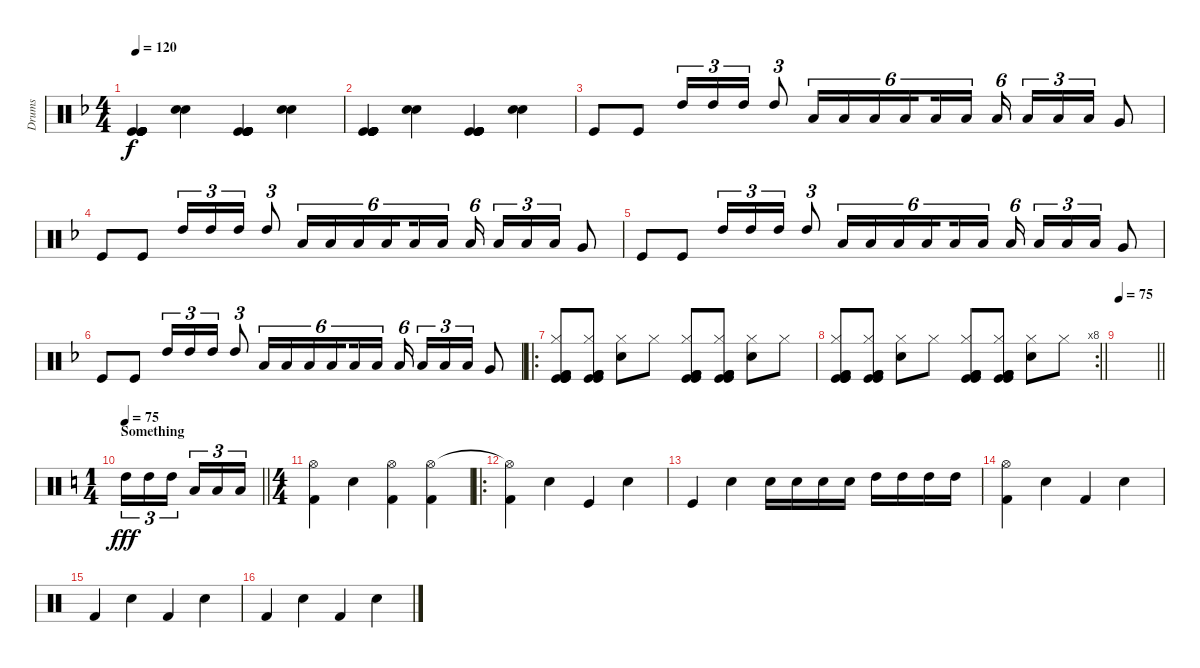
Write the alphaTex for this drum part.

\track ("Drums" "Drums") {instrument percussion}
\staff {score}
\articulation defaults
\ts (4 4)
\tempo 120
\clef neutral
\ks f
("Kick (hit)" "Kick (hit)" "Kick (hit)" "Kick (hit)" "Kick (hit)" "Kick (hit)").4{dy f} ("Snare (hit) 2" "Snare (hit) 2").4 ("Kick (hit)" "Kick (hit)" "Kick (hit)" "Kick (hit)" "Kick (hit)" "Kick (hit)").4 ("Snare (hit) 2" "Snare (hit) 2").4 |
("Kick (hit)" "Kick (hit)" "Kick (hit)" "Kick (hit)" "Kick (hit)" "Kick (hit)").4 ("Snare (hit) 2" "Snare (hit) 2").4 ("Kick (hit)" "Kick (hit)" "Kick (hit)" "Kick (hit)" "Kick (hit)" "Kick (hit)").4 ("Snare (hit) 2" "Snare (hit) 2").4 |
"Kick (hit)".8 "Kick (hit)".8 "High Tom (hit)".16{tu (3 2) beam Up} "High Tom (hit)".16{tu (3 2) beam Up} "High Tom (hit)".16{tu (3 2) beam Up} "High Tom (hit)".8{tu (3 2) beam Up} "Low Tom (hit)".16{tu (6 4) beam Up} "Low Tom (hit)".16{tu (6 4)} "Low Tom (hit)".16{tu (6 4)} "Low Tom (hit)".16{tu (6 4) beam splitsecondary} "Low Tom (hit)".16{tu (6 4)} "Low Tom (hit)".16{tu (6 4)} "Low Tom (hit)".16{tu (6 4)} "Low Tom (hit)".16{tu (3 2)} "Low Tom (hit)".16{tu (3 2)} "Low Tom (hit)".16{tu (3 2)} "Very Low Tom (hit)".8 |
"Kick (hit)".8 "Kick (hit)".8 "High Tom (hit)".16{tu (3 2) beam Up} "High Tom (hit)".16{tu (3 2) beam Up} "High Tom (hit)".16{tu (3 2) beam Up} "High Tom (hit)".8{tu (3 2) beam Up} "Low Tom (hit)".16{tu (6 4) beam Up} "Low Tom (hit)".16{tu (6 4)} "Low Tom (hit)".16{tu (6 4)} "Low Tom (hit)".16{tu (6 4) beam splitsecondary} "Low Tom (hit)".16{tu (6 4)} "Low Tom (hit)".16{tu (6 4)} "Low Tom (hit)".16{tu (6 4)} "Low Tom (hit)".16{tu (3 2)} "Low Tom (hit)".16{tu (3 2)} "Low Tom (hit)".16{tu (3 2)} "Very Low Tom (hit)".8 |
"Kick (hit)".8 "Kick (hit)".8 "High Tom (hit)".16{tu (3 2) beam Up} "High Tom (hit)".16{tu (3 2) beam Up} "High Tom (hit)".16{tu (3 2) beam Up} "High Tom (hit)".8{tu (3 2) beam Up} "Low Tom (hit)".16{tu (6 4) beam Up} "Low Tom (hit)".16{tu (6 4)} "Low Tom (hit)".16{tu (6 4)} "Low Tom (hit)".16{tu (6 4) beam splitsecondary} "Low Tom (hit)".16{tu (6 4)} "Low Tom (hit)".16{tu (6 4)} "Low Tom (hit)".16{tu (6 4)} "Low Tom (hit)".16{tu (3 2)} "Low Tom (hit)".16{tu (3 2)} "Low Tom (hit)".16{tu (3 2)} "Very Low Tom (hit)".8 |
"Kick (hit)".8 "Kick (hit)".8 "High Tom (hit)".16{tu (3 2) beam Up} "High Tom (hit)".16{tu (3 2) beam Up} "High Tom (hit)".16{tu (3 2) beam Up} "High Tom (hit)".8{tu (3 2) beam Up} "Low Tom (hit)".16{tu (6 4) beam Up} "Low Tom (hit)".16{tu (6 4)} "Low Tom (hit)".16{tu (6 4)} "Low Tom (hit)".16{tu (6 4) beam splitsecondary} "Low Tom (hit)".16{tu (6 4)} "Low Tom (hit)".16{tu (6 4)} "Low Tom (hit)".16{tu (6 4)} "Low Tom (hit)".16{tu (3 2)} "Low Tom (hit)".16{tu (3 2)} "Low Tom (hit)".16{tu (3 2)} "Very Low Tom (hit)".8 |
\ro
("Hi-Hat (closed)" "Kick (hit) 2" "Kick (hit) 2" "Kick (hit)" "Kick (hit)" "Kick (hit)").8 ("Hi-Hat (closed)" "Kick (hit) 2" "Kick (hit) 2" "Kick (hit) 2" "Kick (hit)" "Kick (hit)").8 ("Hi-Hat (closed)" "Snare (hit) 2").8 "Hi-Hat (closed)".8 ("Hi-Hat (closed)" "Kick (hit) 2" "Kick (hit) 2" "Kick (hit) 2" "Kick (hit)" "Kick (hit)").8 ("Hi-Hat (closed)" "Kick (hit) 2" "Kick (hit) 2" "Kick (hit) 2" "Kick (hit)" "Kick (hit)").8 ("Hi-Hat (closed)" "Snare (hit) 2").8 "Hi-Hat (closed)".8 |
\rc 8
\barLineRight lightlight
("Hi-Hat (closed)" "Kick (hit) 2" "Kick (hit) 2" "Kick (hit)" "Kick (hit)" "Kick (hit)").8 ("Hi-Hat (closed)" "Kick (hit) 2" "Kick (hit) 2" "Kick (hit) 2" "Kick (hit)" "Kick (hit)").8 ("Hi-Hat (closed)" "Snare (hit) 2").8 "Hi-Hat (closed)".8 ("Hi-Hat (closed)" "Kick (hit) 2" "Kick (hit) 2" "Kick (hit) 2" "Kick (hit)" "Kick (hit)").8 ("Hi-Hat (closed)" "Kick (hit) 2" "Kick (hit) 2" "Kick (hit) 2" "Kick (hit)" "Kick (hit)").8 ("Hi-Hat (closed)" "Snare (hit) 2").8 "Hi-Hat (closed)".8 |
\tempo 75
\barLineRight lightlight
|
\ts (1 4)
\section ("" "Something")
\tempo 75
\barLineRight lightlight
\ks c "High Tom (hit)".16{tu (3 2) dy fff} "High Tom (hit)".16{tu (3 2)} "High Tom (hit)".16{tu (3 2) beam splitsecondary} "Low Tom (hit)".16{tu (3 2)} "Low Tom (hit)".16{tu (3 2)} "Low Tom (hit)".16{tu (3 2)}
|
\ts (4 4)
("Hi-Hat (open)" "Kick (hit) 2").4 "Snare (hit) 2".4 ("Kick (hit) 2" "Hi-Hat (open)").4 ("Kick (hit) 2" "Hi-Hat (open)").4 |
\ro
("Kick (hit) 2" "Hi-Hat (open)"{t}).4 "Snare (hit) 2".4 "Kick (hit)".4 "Snare (hit) 2".4 |
"Kick (hit)".4 "Snare (hit) 2".4 "Snare (hit) 2".16 "Snare (hit) 2".16 "Snare (hit) 2".16 "Snare (hit) 2".16 "High Tom (hit)".16 "High Tom (hit)".16 "High Tom (hit)".16 "High Tom (hit)".16 |
("Hi-Hat (open)" "Kick (hit) 2").4 "Snare (hit) 2".4 "Kick (hit) 2".4 "Snare (hit) 2".4 |
"Kick (hit) 2".4 "Snare (hit) 2".4 "Kick (hit) 2".4 "Snare (hit) 2".4 |
"Kick (hit) 2".4 "Snare (hit) 2".4 "Kick (hit) 2".4 "Snare (hit) 2".4
